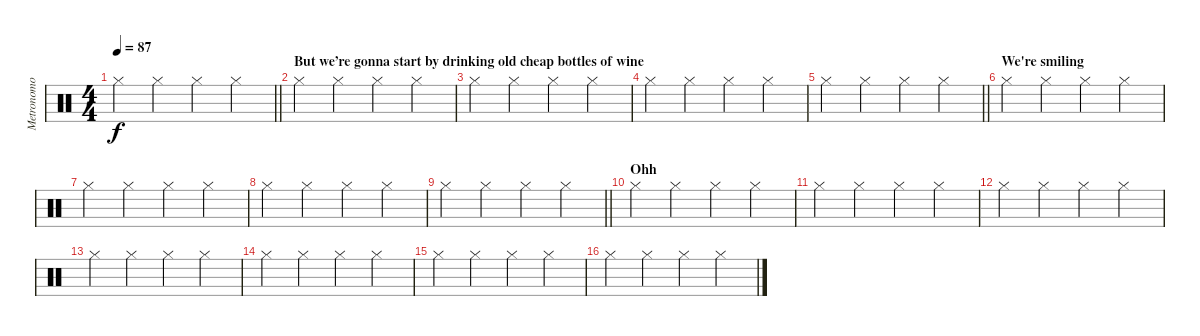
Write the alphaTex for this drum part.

\track ("Metronomo" "Metronomo") {instrument percussion}
\staff {score}
\articulation defaults
\ts (4 4)
\tempo 87
\clef neutral
\barLineRight lightlight
\ks c "Hi-Hat (closed)".4{dy f} "Hi-Hat (closed)".4 "Hi-Hat (closed)".4 "Hi-Hat (closed)".4
|
\section ("" "But we’re gonna start by drinking old cheap bottles of wine")
"Hi-Hat (closed)".4 "Hi-Hat (closed)".4 "Hi-Hat (closed)".4 "Hi-Hat (closed)".4 |
"Hi-Hat (closed)".4 "Hi-Hat (closed)".4 "Hi-Hat (closed)".4 "Hi-Hat (closed)".4 |
"Hi-Hat (closed)".4 "Hi-Hat (closed)".4 "Hi-Hat (closed)".4 "Hi-Hat (closed)".4 |
\barLineRight lightlight "Hi-Hat (closed)".4 "Hi-Hat (closed)".4 "Hi-Hat (closed)".4 "Hi-Hat (closed)".4
|
\section ("" "We're smiling")
"Hi-Hat (closed)".4 "Hi-Hat (closed)".4 "Hi-Hat (closed)".4 "Hi-Hat (closed)".4 |
"Hi-Hat (closed)".4 "Hi-Hat (closed)".4 "Hi-Hat (closed)".4 "Hi-Hat (closed)".4 |
"Hi-Hat (closed)".4 "Hi-Hat (closed)".4 "Hi-Hat (closed)".4 "Hi-Hat (closed)".4 |
\barLineRight lightlight "Hi-Hat (closed)".4 "Hi-Hat (closed)".4 "Hi-Hat (closed)".4 "Hi-Hat (closed)".4
|
\section ("" "Ohh")
"Hi-Hat (closed)".4 "Hi-Hat (closed)".4 "Hi-Hat (closed)".4 "Hi-Hat (closed)".4 |
"Hi-Hat (closed)".4 "Hi-Hat (closed)".4 "Hi-Hat (closed)".4 "Hi-Hat (closed)".4 |
"Hi-Hat (closed)".4 "Hi-Hat (closed)".4 "Hi-Hat (closed)".4 "Hi-Hat (closed)".4 |
"Hi-Hat (closed)".4 "Hi-Hat (closed)".4 "Hi-Hat (closed)".4 "Hi-Hat (closed)".4 |
"Hi-Hat (closed)".4 "Hi-Hat (closed)".4 "Hi-Hat (closed)".4 "Hi-Hat (closed)".4 |
"Hi-Hat (closed)".4 "Hi-Hat (closed)".4 "Hi-Hat (closed)".4 "Hi-Hat (closed)".4 |
"Hi-Hat (closed)".4 "Hi-Hat (closed)".4 "Hi-Hat (closed)".4 "Hi-Hat (closed)".4
